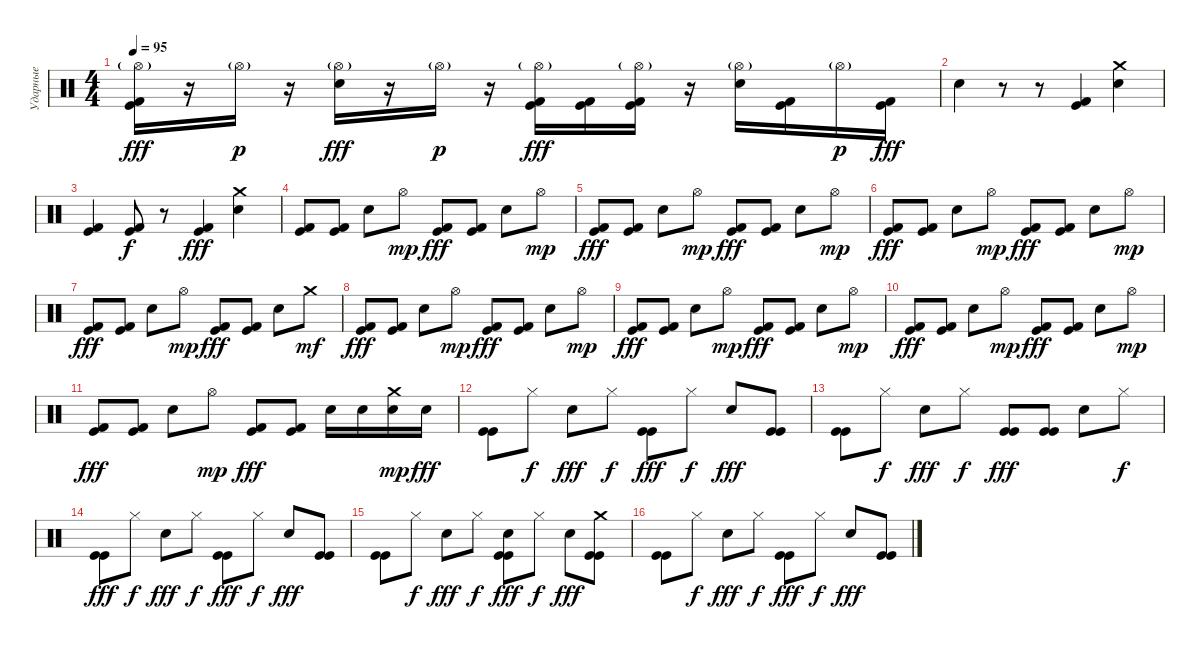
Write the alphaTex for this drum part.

\track ("Ударные" "Ударные") {instrument percussion}
\staff {score}
\articulation defaults
\ts (4 4)
\tempo 95
\clef neutral
\ks c
("Hi-Hat (open)"{g} "Kick (hit) 2" "Kick (hit)").16{dy fff} r.16 "Hi-Hat (open)"{g}.16{dy p} r.16 ("Hi-Hat (open)"{g} "Electric Snare (hit)").16{dy fff} r.16 "Hi-Hat (open)"{g}.16{dy p} r.16 ("Hi-Hat (open)"{g} "Kick (hit) 2" "Kick (hit)").16{dy fff} ("Kick (hit) 2" "Kick (hit)").16 ("Hi-Hat (open)"{g} "Kick (hit) 2" "Kick (hit)").16 r.16 ("Hi-Hat (open)"{g} "Electric Snare (hit)").16 ("Kick (hit) 2" "Kick (hit)").16 "Hi-Hat (open)"{g}.16{dy p} ("Kick (hit) 2" "Kick (hit)").16{dy fff} |
"Snare (hit) 2".4 r.8 r.8 ("Kick (hit)" "Kick (hit) 2").4 ("Crash medium (hit)" "Snare (hit) 2").4 |
("Kick (hit) 2" "Kick (hit)").4 ("Kick (hit) 2" "Kick (hit)").8{dy f} r.8 ("Kick (hit)" "Kick (hit) 2").4{dy fff} ("Crash medium (hit)" "Snare (hit) 2").4 |
("Kick (hit) 2" "Kick (hit)").8 ("Kick (hit) 2" "Kick (hit)").8 "Snare (hit) 2".8 "Hi-Hat (open)".8{dy mp} ("Kick (hit) 2" "Kick (hit)").8{dy fff} ("Kick (hit) 2" "Kick (hit)").8 "Snare (hit) 2".8 "Hi-Hat (open)".8{dy mp} |
("Kick (hit) 2" "Kick (hit)").8{dy fff} ("Kick (hit) 2" "Kick (hit)").8 "Snare (hit) 2".8 "Hi-Hat (open)".8{dy mp} ("Kick (hit) 2" "Kick (hit)").8{dy fff} ("Kick (hit) 2" "Kick (hit)").8 "Snare (hit) 2".8 "Hi-Hat (open)".8{dy mp} |
("Kick (hit) 2" "Kick (hit)").8{dy fff} ("Kick (hit) 2" "Kick (hit)").8 "Snare (hit) 2".8 "Hi-Hat (open)".8{dy mp} ("Kick (hit) 2" "Kick (hit)").8{dy fff} ("Kick (hit) 2" "Kick (hit)").8 "Snare (hit) 2".8 "Hi-Hat (open)".8{dy mp} |
("Kick (hit) 2" "Kick (hit)").8{dy fff} ("Kick (hit) 2" "Kick (hit)").8 "Snare (hit) 2".8 "Hi-Hat (open)".8{dy mp} ("Kick (hit) 2" "Kick (hit)").8{dy fff} ("Kick (hit) 2" "Kick (hit)").8 "Snare (hit) 2".8 "Crash medium (hit)".8{dy mf} |
("Kick (hit) 2" "Kick (hit)").8{dy fff} ("Kick (hit) 2" "Kick (hit)").8 "Snare (hit) 2".8 "Hi-Hat (open)".8{dy mp} ("Kick (hit) 2" "Kick (hit)").8{dy fff} ("Kick (hit) 2" "Kick (hit)").8 "Snare (hit) 2".8 "Hi-Hat (open)".8{dy mp} |
("Kick (hit) 2" "Kick (hit)").8{dy fff} ("Kick (hit) 2" "Kick (hit)").8 "Snare (hit) 2".8 "Hi-Hat (open)".8{dy mp} ("Kick (hit) 2" "Kick (hit)").8{dy fff} ("Kick (hit) 2" "Kick (hit)").8 "Snare (hit) 2".8 "Hi-Hat (open)".8{dy mp} |
("Kick (hit) 2" "Kick (hit)").8{dy fff} ("Kick (hit) 2" "Kick (hit)").8 "Snare (hit) 2".8 "Hi-Hat (open)".8{dy mp} ("Kick (hit) 2" "Kick (hit)").8{dy fff} ("Kick (hit) 2" "Kick (hit)").8 "Snare (hit) 2".8 "Hi-Hat (open)".8{dy mp} |
("Kick (hit) 2" "Kick (hit)").8{dy fff} ("Kick (hit) 2" "Kick (hit)").8 "Snare (hit) 2".8 "Hi-Hat (open)".8{dy mp} ("Kick (hit) 2" "Kick (hit)").8{dy fff} ("Kick (hit) 2" "Kick (hit)").8 "Snare (hit) 2".16 "Snare (hit) 2".16 ("Snare (hit) 2" "Crash medium (hit)").16{dy mp} "Snare (hit) 2".16{dy fff} |
("Kick (hit)" "Kick (hit)").8 "Hi-Hat (closed)".8{dy f} "Snare (hit) 2".8{dy fff} "Hi-Hat (closed)".8{dy f} ("Kick (hit)" "Kick (hit)").8{dy fff} "Hi-Hat (closed)".8{dy f} "Snare (hit) 2".8{dy fff} ("Kick (hit)" "Kick (hit)").8 |
("Kick (hit)" "Kick (hit)").8 "Hi-Hat (closed)".8{dy f} "Snare (hit) 2".8{dy fff} "Hi-Hat (closed)".8{dy f} ("Kick (hit)" "Kick (hit)").8{dy fff} ("Kick (hit)" "Kick (hit)").8 "Snare (hit) 2".8 "Hi-Hat (closed)".8{dy f} |
("Kick (hit)" "Kick (hit)").8{dy fff} "Hi-Hat (closed)".8{dy f} "Snare (hit) 2".8{dy fff} "Hi-Hat (closed)".8{dy f} ("Kick (hit)" "Kick (hit)").8{dy fff} "Hi-Hat (closed)".8{dy f} "Snare (hit) 2".8{dy fff} ("Kick (hit)" "Kick (hit)").8 |
("Kick (hit)" "Kick (hit)").8 "Hi-Hat (closed)".8{dy f} "Snare (hit) 2".8{dy fff} "Hi-Hat (closed)".8{dy f} ("Snare (hit) 2" "Kick (hit)" "Kick (hit)").8{dy fff} "Hi-Hat (closed)".8{dy f} "Snare (hit) 2".8{dy fff} ("Crash medium (hit)" "Kick (hit)" "Kick (hit)").8 |
("Kick (hit)" "Kick (hit)").8 "Hi-Hat (closed)".8{dy f} "Snare (hit) 2".8{dy fff} "Hi-Hat (closed)".8{dy f} ("Kick (hit)" "Kick (hit)").8{dy fff} "Hi-Hat (closed)".8{dy f} "Snare (hit) 2".8{dy fff} ("Kick (hit)" "Kick (hit)").8
